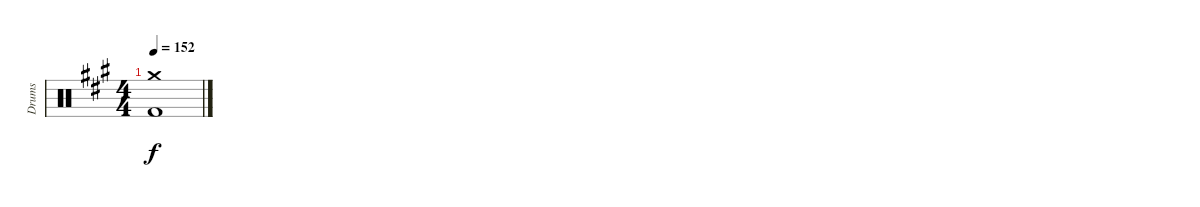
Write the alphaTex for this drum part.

\track ("Drums" "Drums") {instrument percussion}
\staff {score}
\articulation defaults
\ts (4 4)
\tempo 152
\clef neutral
\ks a
("Crash medium (hit)" "Kick (hit) 2").1{dy f}
